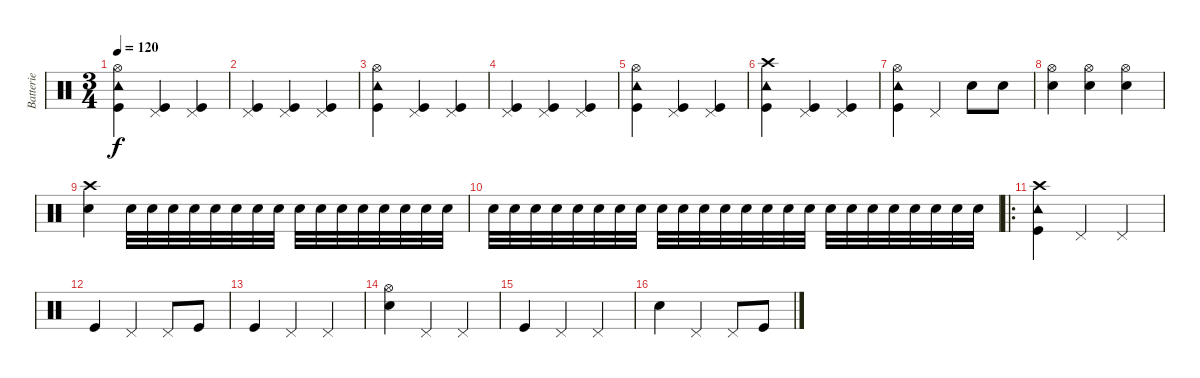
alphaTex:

\track ("Batterie" "Batterie") {instrument percussion}
\staff {score}
\articulation defaults
\ts (3 4)
\tempo 120
\clef neutral
\ks c
("Hi-Hat (open)" "Tambourine (hit)" "Kick (hit)").4{dy f} ("Pedal Hi-Hat (hit)" "Kick (hit)").4 ("Pedal Hi-Hat (hit)" "Kick (hit)").4 |
("Pedal Hi-Hat (hit)" "Kick (hit)").4 ("Pedal Hi-Hat (hit)" "Kick (hit)").4 ("Pedal Hi-Hat (hit)" "Kick (hit)").4 |
("Hi-Hat (open)" "Tambourine (hit)" "Kick (hit)").4 ("Pedal Hi-Hat (hit)" "Kick (hit)").4 ("Pedal Hi-Hat (hit)" "Kick (hit)").4 |
("Pedal Hi-Hat (hit)" "Kick (hit)").4 ("Pedal Hi-Hat (hit)" "Kick (hit)").4 ("Pedal Hi-Hat (hit)" "Kick (hit)").4 |
("Hi-Hat (open)" "Tambourine (hit)" "Kick (hit)").4 ("Pedal Hi-Hat (hit)" "Kick (hit)").4 ("Pedal Hi-Hat (hit)" "Kick (hit)").4 |
("Crash high (hit)" "Tambourine (hit)" "Kick (hit)").4 ("Pedal Hi-Hat (hit)" "Kick (hit)").4 ("Pedal Hi-Hat (hit)" "Kick (hit)").4 |
("Hi-Hat (open)" "Tambourine (hit)" "Kick (hit)").4 "Pedal Hi-Hat (hit)".4 "Snare (hit) 2".8 "Snare (hit) 2".8 |
("Hi-Hat (open)" "Snare (hit) 2").4 ("Hi-Hat (open)" "Snare (hit) 2").4 ("Hi-Hat (open)" "Snare (hit) 2").4 |
("Crash high (hit)" "Snare (hit) 2").4 "Snare (hit) 2".32 "Snare (hit) 2".32 "Snare (hit) 2".32 "Snare (hit) 2".32 "Snare (hit) 2".32 "Snare (hit) 2".32 "Snare (hit) 2".32 "Snare (hit) 2".32 "Snare (hit) 2".32 "Snare (hit) 2".32 "Snare (hit) 2".32 "Snare (hit) 2".32 "Snare (hit) 2".32 "Snare (hit) 2".32 "Snare (hit) 2".32 "Snare (hit) 2".32 |
"Snare (hit) 2".32 "Snare (hit) 2".32 "Snare (hit) 2".32 "Snare (hit) 2".32 "Snare (hit) 2".32 "Snare (hit) 2".32 "Snare (hit) 2".32 "Snare (hit) 2".32 "Snare (hit) 2".32 "Snare (hit) 2".32 "Snare (hit) 2".32 "Snare (hit) 2".32 "Snare (hit) 2".32 "Snare (hit) 2".32 "Snare (hit) 2".32 "Snare (hit) 2".32 "Snare (hit) 2".32 "Snare (hit) 2".32 "Snare (hit) 2".32 "Snare (hit) 2".32 "Snare (hit) 2".32 "Snare (hit) 2".32 "Snare (hit) 2".32 "Snare (hit) 2".32 |
\ro
("Crash high (hit)" "Tambourine (hit)" "Kick (hit)").4 "Pedal Hi-Hat (hit)".4 "Pedal Hi-Hat (hit)".4 |
"Kick (hit)".4 "Pedal Hi-Hat (hit)".4 "Pedal Hi-Hat (hit)".8 "Kick (hit)".8 |
"Kick (hit)".4 "Pedal Hi-Hat (hit)".4 "Pedal Hi-Hat (hit)".4 |
("Hi-Hat (open)" "Snare (hit) 2").4 "Pedal Hi-Hat (hit)".4 "Pedal Hi-Hat (hit)".4 |
"Kick (hit)".4 "Pedal Hi-Hat (hit)".4 "Pedal Hi-Hat (hit)".4 |
"Snare (hit) 2".4 "Pedal Hi-Hat (hit)".4 "Pedal Hi-Hat (hit)".8 "Kick (hit)".8
